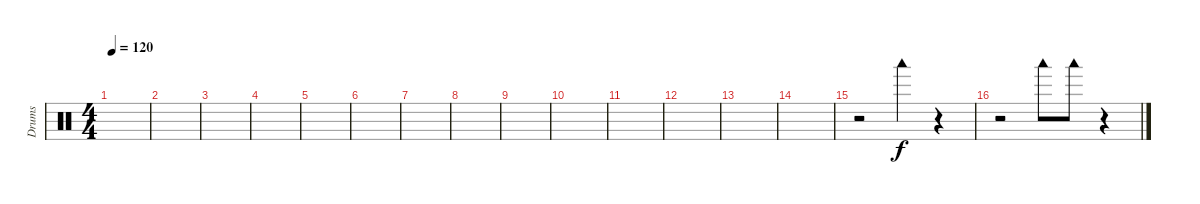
\track ("Drums" "Drums") {instrument percussion}
\staff {score}
\articulation defaults
\ts (4 4)
\tempo 120
\clef neutral
\ks c
|
|
|
|
|
|
|
|
|
|
|
|
|
|
r.2 "Woodblock low (hit)".4 r.4 |
r.2 "Woodblock low (hit)".8 "Woodblock low (hit)".8 r.4
